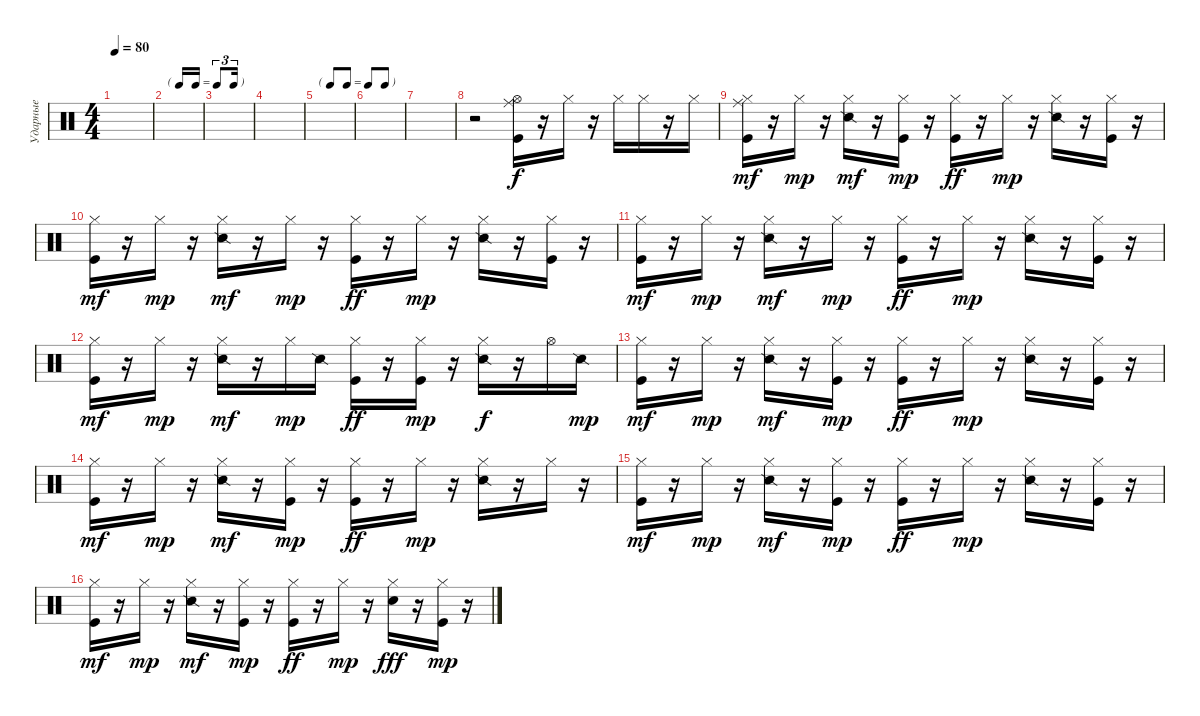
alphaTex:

\track ("Ударные" "Ударные") {instrument percussion}
\staff {score}
\articulation defaults
\ts (4 4)
\tempo 80
\clef neutral
\ks c
|
\tf triplet16th
|
|
|
\tf none
|
|
|
r.2 ("Hi-Hat (open)" "Ride (middle)" "Kick (hit)").16 r.16 "Hi-Hat (closed)".16{dy f} r.16 "Hi-Hat (closed)".16 "Hi-Hat (closed)".16 r.16 "Hi-Hat (closed)".16 |
("Ride (middle)" "Hi-Hat (closed)" "Kick (hit)").16{dy mf} r.16 "Hi-Hat (closed)".16{dy mp} r.16 ("Snare (side stick) 2" "Hi-Hat (closed)").16{dy mf} r.16 ("Kick (hit)" "Hi-Hat (closed)").16{dy mp} r.16 ("Hi-Hat (closed)" "Kick (hit)").16{dy ff} r.16 "Hi-Hat (closed)".16{dy mp} r.16 ("Snare (side stick) 2" "Hi-Hat (closed)").16 r.16 ("Hi-Hat (closed)" "Kick (hit)").16 r.16 |
("Hi-Hat (closed)" "Kick (hit)").16{dy mf} r.16 "Hi-Hat (closed)".16{dy mp} r.16 ("Snare (side stick) 2" "Hi-Hat (closed)").16{dy mf} r.16 "Hi-Hat (closed)".16{dy mp} r.16 ("Hi-Hat (closed)" "Kick (hit)").16{dy ff} r.16 "Hi-Hat (closed)".16{dy mp} r.16 ("Snare (side stick) 2" "Hi-Hat (closed)").16 r.16 ("Hi-Hat (closed)" "Kick (hit)").16 r.16 |
("Hi-Hat (closed)" "Kick (hit)").16{dy mf} r.16 "Hi-Hat (closed)".16{dy mp} r.16 ("Snare (side stick) 2" "Hi-Hat (closed)").16{dy mf} r.16 "Hi-Hat (closed)".16{dy mp} r.16 ("Hi-Hat (closed)" "Kick (hit)").16{dy ff} r.16 "Hi-Hat (closed)".16{dy mp} r.16 ("Snare (side stick) 2" "Hi-Hat (closed)").16 r.16 ("Hi-Hat (closed)" "Kick (hit)").16 r.16 |
("Hi-Hat (closed)" "Kick (hit)").16{dy mf} r.16 "Hi-Hat (closed)".16{dy mp} r.16 ("Snare (side stick) 2" "Hi-Hat (closed)").16{dy mf} r.16 "Hi-Hat (closed)".16{dy mp} "Snare (side stick) 2".16 ("Hi-Hat (closed)" "Kick (hit)").16{dy ff} r.16 ("Hi-Hat (closed)" "Kick (hit)").16{dy mp} r.16 ("Snare (side stick) 2" "Hi-Hat (closed)").16{dy f} r.16 "Hi-Hat (open)".16 "Snare (side stick) 2".16{dy mp} |
("Hi-Hat (closed)" "Kick (hit)").16{dy mf} r.16 "Hi-Hat (closed)".16{dy mp} r.16 ("Snare (side stick) 2" "Hi-Hat (closed)").16{dy mf} r.16 ("Kick (hit)" "Hi-Hat (closed)").16{dy mp} r.16 ("Hi-Hat (closed)" "Kick (hit)").16{dy ff} r.16 "Hi-Hat (closed)".16{dy mp} r.16 ("Snare (side stick) 2" "Hi-Hat (closed)").16 r.16 ("Hi-Hat (closed)" "Kick (hit)").16 r.16 |
("Hi-Hat (closed)" "Kick (hit)").16{dy mf} r.16 "Hi-Hat (closed)".16{dy mp} r.16 ("Snare (side stick) 2" "Hi-Hat (closed)").16{dy mf} r.16 ("Kick (hit)" "Hi-Hat (closed)").16{dy mp} r.16 ("Hi-Hat (closed)" "Kick (hit)").16{dy ff} r.16 "Hi-Hat (closed)".16{dy mp} r.16 ("Snare (side stick) 2" "Hi-Hat (closed)").16 r.16 "Hi-Hat (closed)".16 r.16 |
("Hi-Hat (closed)" "Kick (hit)").16{dy mf} r.16 "Hi-Hat (closed)".16{dy mp} r.16 ("Snare (side stick) 2" "Hi-Hat (closed)").16{dy mf} r.16 ("Kick (hit)" "Hi-Hat (closed)").16{dy mp} r.16 ("Hi-Hat (closed)" "Kick (hit)").16{dy ff} r.16 "Hi-Hat (closed)".16{dy mp} r.16 ("Snare (side stick) 2" "Hi-Hat (closed)").16 r.16 ("Hi-Hat (closed)" "Kick (hit)").16 r.16 |
("Hi-Hat (closed)" "Kick (hit)").16{dy mf} r.16 "Hi-Hat (closed)".16{dy mp} r.16 ("Snare (side stick) 2" "Hi-Hat (closed)").16{dy mf} r.16 ("Kick (hit)" "Hi-Hat (closed)").16{dy mp} r.16 ("Hi-Hat (closed)" "Kick (hit)").16{dy ff} r.16 "Hi-Hat (closed)".16{dy mp} r.16 ("Electric Snare (hit)" "Hi-Hat (closed)").16{dy fff} r.16 ("Hi-Hat (closed)" "Kick (hit)").16{dy mp} r.16
